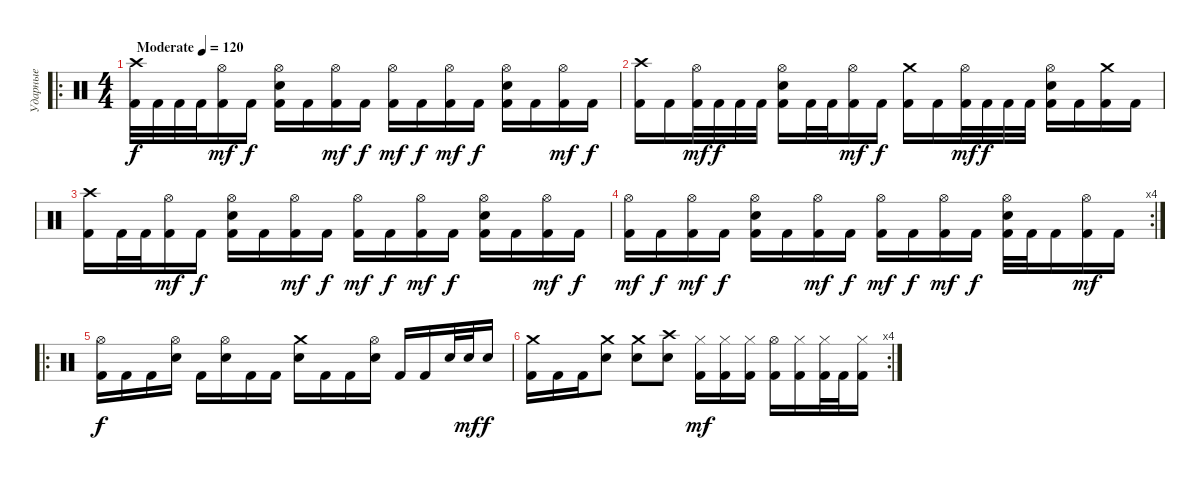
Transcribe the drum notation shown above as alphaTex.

\track ("Ударные" "Ударные") {instrument percussion}
\staff {score}
\articulation defaults
\ro
\ts (4 4)
\tempo (120 "Moderate")
\clef neutral
\ks c
("Crash high (hit)" "Kick (hit) 2").32{dy f} "Kick (hit) 2".32 "Kick (hit) 2".32 "Kick (hit) 2".32 ("Hi-Hat (open)" "Kick (hit) 2").16{dy mf} "Kick (hit) 2".16{dy f} ("Hi-Hat (open)" "Electric Snare (hit)" "Kick (hit) 2").16 "Kick (hit) 2".16 ("Hi-Hat (open)" "Kick (hit) 2").16{dy mf} "Kick (hit) 2".16{dy f} ("Hi-Hat (open)" "Kick (hit) 2").16{dy mf} "Kick (hit) 2".16{dy f} ("Hi-Hat (open)" "Kick (hit) 2").16{dy mf} "Kick (hit) 2".16{dy f} ("Hi-Hat (open)" "Electric Snare (hit)" "Kick (hit) 2").16 "Kick (hit) 2".16 ("Hi-Hat (open)" "Kick (hit) 2").16{dy mf} "Kick (hit) 2".16{dy f} |
("Crash high (hit)" "Kick (hit) 2").16 "Kick (hit) 2".16 ("Hi-Hat (open)" "Kick (hit) 2").32{dy mf} "Kick (hit) 2".32{dy f} "Kick (hit) 2".32 "Kick (hit) 2".32 ("Hi-Hat (open)" "Electric Snare (hit)" "Kick (hit) 2").16 "Kick (hit) 2".32 "Kick (hit) 2".32 ("Hi-Hat (open)" "Kick (hit) 2").16{dy mf} "Kick (hit) 2".16{dy f} ("Crash medium (hit)" "Kick (hit) 2").16 "Kick (hit) 2".16 ("Hi-Hat (open)" "Kick (hit) 2").32{dy mf} "Kick (hit) 2".32{dy f} "Kick (hit) 2".32 "Kick (hit) 2".32 ("Hi-Hat (open)" "Electric Snare (hit)" "Kick (hit) 2").16 "Kick (hit) 2".16 ("Crash medium (hit)" "Kick (hit) 2").16 "Kick (hit) 2".16 |
("Crash high (hit)" "Kick (hit) 2").16 "Kick (hit) 2".32 "Kick (hit) 2".32 ("Hi-Hat (open)" "Kick (hit) 2").16{dy mf} "Kick (hit) 2".16{dy f} ("Hi-Hat (open)" "Electric Snare (hit)" "Kick (hit) 2").16 "Kick (hit) 2".16 ("Hi-Hat (open)" "Kick (hit) 2").16{dy mf} "Kick (hit) 2".16{dy f} ("Hi-Hat (open)" "Kick (hit) 2").16{dy mf} "Kick (hit) 2".16{dy f} ("Hi-Hat (open)" "Kick (hit) 2").16{dy mf} "Kick (hit) 2".16{dy f} ("Hi-Hat (open)" "Electric Snare (hit)" "Kick (hit) 2").16 "Kick (hit) 2".16 ("Hi-Hat (open)" "Kick (hit) 2").16{dy mf} "Kick (hit) 2".16{dy f} |
\rc 4
("Hi-Hat (open)" "Kick (hit) 2").16{dy mf} "Kick (hit) 2".16{dy f} ("Hi-Hat (open)" "Kick (hit) 2").16{dy mf} "Kick (hit) 2".16{dy f} ("Hi-Hat (open)" "Electric Snare (hit)" "Kick (hit) 2").16 "Kick (hit) 2".16 ("Hi-Hat (open)" "Kick (hit) 2").16{dy mf} "Kick (hit) 2".16{dy f} ("Hi-Hat (open)" "Kick (hit) 2").16{dy mf} "Kick (hit) 2".16{dy f} ("Hi-Hat (open)" "Kick (hit) 2").16{dy mf} "Kick (hit) 2".16{dy f} ("Hi-Hat (open)" "Electric Snare (hit)" "Kick (hit) 2").32 "Kick (hit) 2".32 "Kick (hit) 2".16 ("Hi-Hat (open)" "Kick (hit) 2").16{dy mf} "Kick (hit) 2".16 |
\ro
("Hi-Hat (open)" "Kick (hit) 2").16{dy f} "Kick (hit) 2".16 "Kick (hit) 2".16 ("Hi-Hat (open)" "Electric Snare (hit)").16 "Kick (hit) 2".16 ("Hi-Hat (open)" "Electric Snare (hit)").16 "Kick (hit) 2".16 "Kick (hit) 2".16 ("Crash medium (hit)" "Electric Snare (hit)").16 "Kick (hit) 2".16 "Kick (hit) 2".16 ("Hi-Hat (open)" "Electric Snare (hit)").16 "Kick (hit) 2".16 "Kick (hit) 2".16 "Electric Snare (hit)".32 "Electric Snare (hit)".32{dy mf} "Electric Snare (hit)".16{dy f} |
\rc 4
("Crash medium (hit)" "Kick (hit) 2").16 "Kick (hit) 2".16 "Kick (hit) 2".16 ("Crash medium (hit)" "Electric Snare (hit)").8 ("Crash medium (hit)" "Electric Snare (hit)").8 ("Crash high (hit)" "Electric Snare (hit)").8 ("Hi-Hat (closed)" "Kick (hit) 2").16{dy mf} ("Hi-Hat (closed)" "Kick (hit) 2").16 ("Hi-Hat (closed)" "Kick (hit) 2").16 ("Hi-Hat (open)" "Kick (hit) 2").16 ("Hi-Hat (closed)" "Kick (hit) 2").16 ("Hi-Hat (closed)" "Kick (hit) 2").32 "Kick (hit) 2".32 ("Hi-Hat (closed)" "Kick (hit) 2").16
